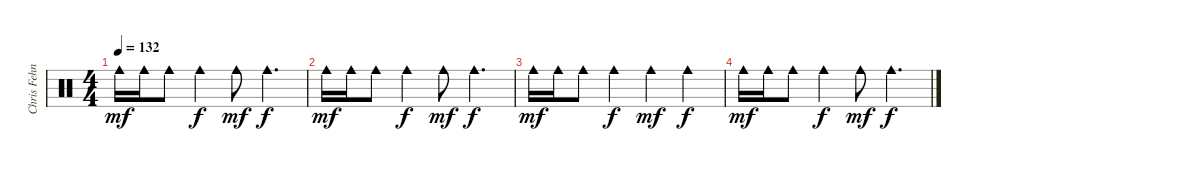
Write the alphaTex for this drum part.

\track ("Chris Fehn" "Chris Fehn") {instrument percussion}
\staff {score}
\articulation defaults
\ts (4 4)
\tempo 132
\clef neutral
\ks c "Cowbell medium (hit)".16{dy mf} "Cowbell medium (hit)".16 "Cowbell medium (hit)".8 "Cowbell medium (hit)".4{dy f} "Cowbell medium (hit)".8{dy mf} "Cowbell medium (hit)".4{d dy f}
|
"Cowbell medium (hit)".16{dy mf} "Cowbell medium (hit)".16 "Cowbell medium (hit)".8 "Cowbell medium (hit)".4{dy f} "Cowbell medium (hit)".8{dy mf} "Cowbell medium (hit)".4{d dy f} |
"Cowbell medium (hit)".16{dy mf} "Cowbell medium (hit)".16 "Cowbell medium (hit)".8 "Cowbell medium (hit)".4{dy f} "Cowbell medium (hit)".4{dy mf} "Cowbell medium (hit)".4{dy f} |
"Cowbell medium (hit)".16{dy mf} "Cowbell medium (hit)".16 "Cowbell medium (hit)".8 "Cowbell medium (hit)".4{dy f} "Cowbell medium (hit)".8{dy mf} "Cowbell medium (hit)".4{d dy f}
